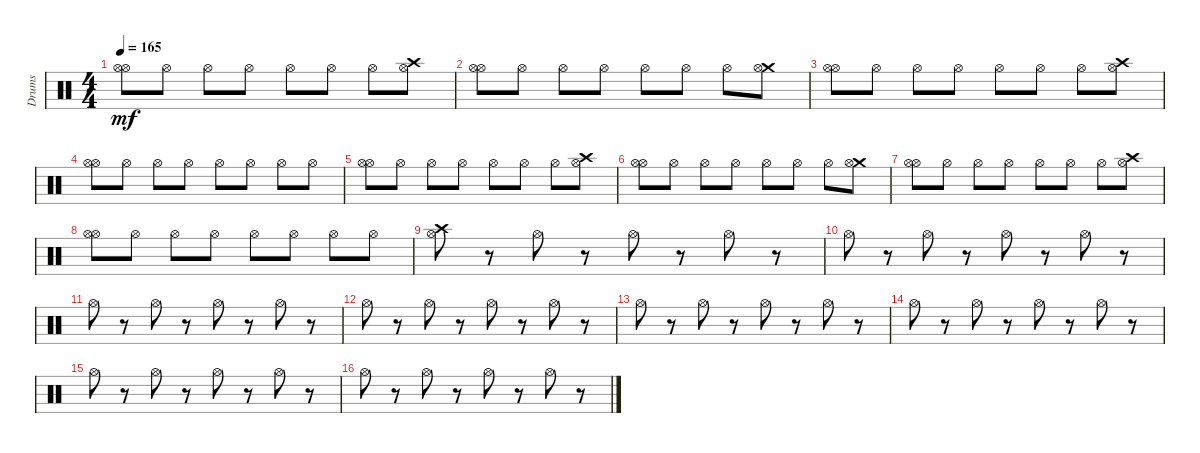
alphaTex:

\track ("Drums" "Drums") {instrument percussion}
\staff {score}
\articulation defaults
\ts (4 4)
\tempo 165
\clef neutral
\ks c
("Hi-Hat (open)" "Hi-Hat (open)").8{dy mf} "Hi-Hat (open)".8 "Hi-Hat (open)".8 "Hi-Hat (open)".8 "Hi-Hat (open)".8 "Hi-Hat (open)".8 "Hi-Hat (open)".8 ("Crash high (hit)" "Hi-Hat (open)").8 |
("Hi-Hat (open)" "Hi-Hat (open)").8 "Hi-Hat (open)".8 "Hi-Hat (open)".8 "Hi-Hat (open)".8 "Hi-Hat (open)".8 "Hi-Hat (open)".8 "Hi-Hat (open)".8 ("Crash medium (hit)" "Hi-Hat (open)").8 |
("Hi-Hat (open)" "Hi-Hat (open)").8 "Hi-Hat (open)".8 "Hi-Hat (open)".8 "Hi-Hat (open)".8 "Hi-Hat (open)".8 "Hi-Hat (open)".8 "Hi-Hat (open)".8 ("Hi-Hat (open)" "Crash high (hit)").8 |
("Hi-Hat (open)" "Hi-Hat (open)").8 "Hi-Hat (open)".8 "Hi-Hat (open)".8 "Hi-Hat (open)".8 "Hi-Hat (open)".8 "Hi-Hat (open)".8 "Hi-Hat (open)".8 "Hi-Hat (open)".8 |
("Hi-Hat (open)" "Hi-Hat (open)").8 "Hi-Hat (open)".8 "Hi-Hat (open)".8 "Hi-Hat (open)".8 "Hi-Hat (open)".8 "Hi-Hat (open)".8 "Hi-Hat (open)".8 ("Crash high (hit)" "Hi-Hat (open)").8 |
("Hi-Hat (open)" "Hi-Hat (open)").8 "Hi-Hat (open)".8 "Hi-Hat (open)".8 "Hi-Hat (open)".8 "Hi-Hat (open)".8 "Hi-Hat (open)".8 "Hi-Hat (open)".8 ("Crash medium (hit)" "Hi-Hat (open)").8 |
("Hi-Hat (open)" "Hi-Hat (open)").8 "Hi-Hat (open)".8 "Hi-Hat (open)".8 "Hi-Hat (open)".8 "Hi-Hat (open)".8 "Hi-Hat (open)".8 "Hi-Hat (open)".8 ("Crash high (hit)" "Hi-Hat (open)").8 |
("Hi-Hat (open)" "Hi-Hat (open)").8 "Hi-Hat (open)".8 "Hi-Hat (open)".8 "Hi-Hat (open)".8 "Hi-Hat (open)".8 "Hi-Hat (open)".8 "Hi-Hat (open)".8 "Hi-Hat (open)".8 |
("Crash high (hit)" "Hi-Hat (open)").8 r.8 "Hi-Hat (open)".8 r.8 "Hi-Hat (open)".8 r.8 "Hi-Hat (open)".8 r.8 |
"Hi-Hat (open)".8 r.8 "Hi-Hat (open)".8 r.8 "Hi-Hat (open)".8 r.8 "Hi-Hat (open)".8 r.8 |
"Hi-Hat (open)".8 r.8 "Hi-Hat (open)".8 r.8 "Hi-Hat (open)".8 r.8 "Hi-Hat (open)".8 r.8 |
"Hi-Hat (open)".8 r.8 "Hi-Hat (open)".8 r.8 "Hi-Hat (open)".8 r.8 "Hi-Hat (open)".8 r.8 |
"Hi-Hat (open)".8 r.8 "Hi-Hat (open)".8 r.8 "Hi-Hat (open)".8 r.8 "Hi-Hat (open)".8 r.8 |
"Hi-Hat (open)".8 r.8 "Hi-Hat (open)".8 r.8 "Hi-Hat (open)".8 r.8 "Hi-Hat (open)".8 r.8 |
"Hi-Hat (open)".8 r.8 "Hi-Hat (open)".8 r.8 "Hi-Hat (open)".8 r.8 "Hi-Hat (open)".8 r.8 |
"Hi-Hat (open)".8 r.8 "Hi-Hat (open)".8 r.8 "Hi-Hat (open)".8 r.8 "Hi-Hat (open)".8 r.8
